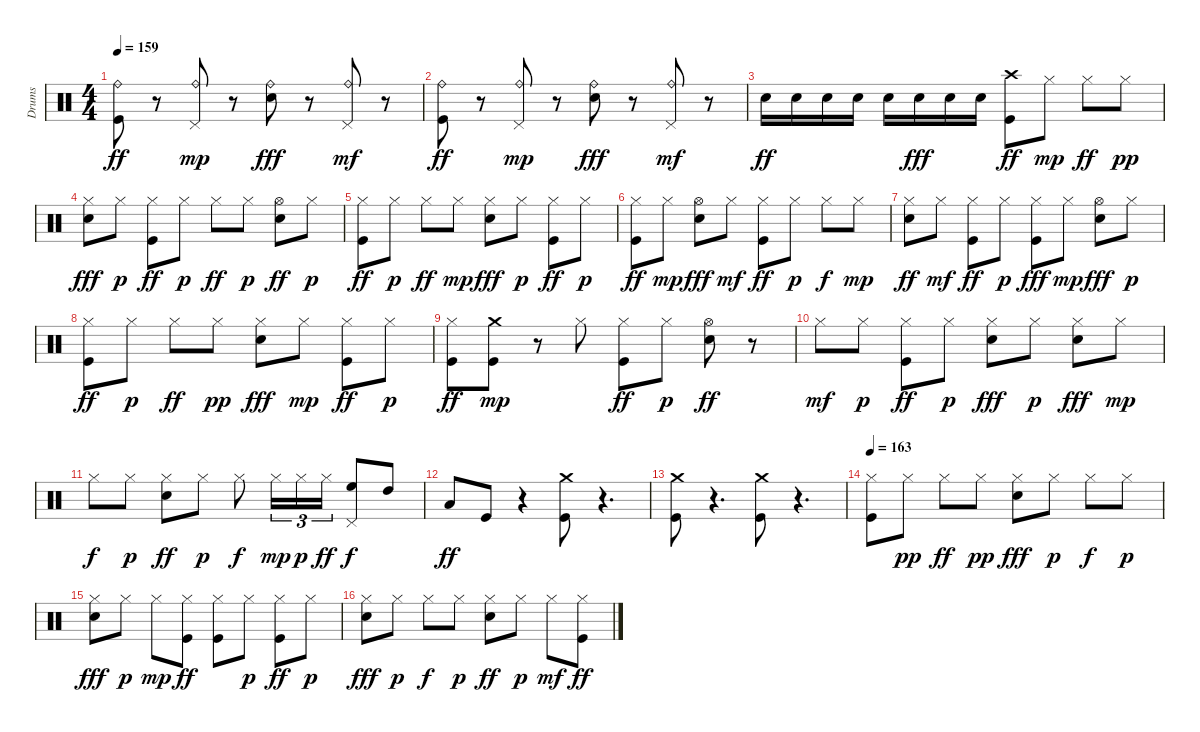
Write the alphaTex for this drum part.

\track ("Drums" "Drums") {instrument percussion}
\staff {score}
\articulation defaults
\ts (4 4)
\tempo 159
\clef neutral
\ks c
("Kick (hit)" "Ride (bell)").8{dy ff} r.8 ("Pedal Hi-Hat (hit)" "Ride (bell)").8{dy mp} r.8 ("Electric Snare (hit)" "Ride (bell)").8{dy fff} r.8 ("Pedal Hi-Hat (hit)" "Ride (bell)").8{dy mf} r.8 |
("Kick (hit)" "Ride (bell)").8{dy ff} r.8 ("Pedal Hi-Hat (hit)" "Ride (bell)").8{dy mp} r.8 ("Electric Snare (hit)" "Ride (bell)").8{dy fff} r.8 ("Pedal Hi-Hat (hit)" "Ride (bell)").8{dy mf} r.8 |
"Electric Snare (hit)".16{dy ff} "Electric Snare (hit)".16 "Electric Snare (hit)".16 "Electric Snare (hit)".16 "Electric Snare (hit)".16 "Electric Snare (hit)".16{dy fff} "Electric Snare (hit)".16 "Electric Snare (hit)".16 ("Kick (hit)" "Crash high (hit)").8{dy ff} "Hi-Hat (closed)".8{dy mp} "Hi-Hat (closed)".8{dy ff} "Hi-Hat (closed)".8{dy pp} |
("Electric Snare (hit)" "Hi-Hat (closed)").8{dy fff} "Hi-Hat (closed)".8{dy p} ("Kick (hit)" "Hi-Hat (closed)").8{dy ff} "Hi-Hat (closed)".8{dy p} "Hi-Hat (closed)".8{dy ff} "Hi-Hat (closed)".8{dy p} ("Electric Snare (hit)" "Hi-Hat (open)").8{dy ff} "Hi-Hat (closed)".8{dy p} |
("Kick (hit)" "Hi-Hat (closed)").8{dy ff} "Hi-Hat (closed)".8{dy p} "Hi-Hat (closed)".8{dy ff} "Hi-Hat (closed)".8{dy mp} ("Electric Snare (hit)" "Hi-Hat (closed)").8{dy fff} "Hi-Hat (closed)".8{dy p} ("Kick (hit)" "Hi-Hat (closed)").8{dy ff} "Hi-Hat (closed)".8{dy p} |
("Kick (hit)" "Hi-Hat (closed)").8{dy ff} "Hi-Hat (closed)".8{dy mp} ("Electric Snare (hit)" "Hi-Hat (open)").8{dy fff} "Hi-Hat (closed)".8{dy mf} ("Kick (hit)" "Hi-Hat (closed)").8{dy ff} "Hi-Hat (closed)".8{dy p} "Hi-Hat (closed)".8{dy f} "Hi-Hat (closed)".8{dy mp} |
("Electric Snare (hit)" "Hi-Hat (closed)").8{dy ff} "Hi-Hat (closed)".8{dy mf} ("Kick (hit)" "Hi-Hat (closed)").8{dy ff} "Hi-Hat (closed)".8{dy p} ("Kick (hit)" "Hi-Hat (closed)").8{dy fff} "Hi-Hat (closed)".8{dy mp} ("Electric Snare (hit)" "Hi-Hat (open)").8{dy fff} "Hi-Hat (closed)".8{dy p} |
("Kick (hit)" "Hi-Hat (closed)").8{dy ff} "Hi-Hat (closed)".8{dy p} "Hi-Hat (closed)".8{dy ff} "Hi-Hat (closed)".8{dy pp} ("Electric Snare (hit)" "Hi-Hat (closed)").8{dy fff} "Hi-Hat (closed)".8{dy mp} ("Kick (hit)" "Hi-Hat (closed)").8{dy ff} "Hi-Hat (closed)".8{dy p} |
("Kick (hit)" "Hi-Hat (closed)").8{dy ff} ("Kick (hit)" "Crash medium (hit)").8{dy mp} r.8 "Hi-Hat (closed)".8 ("Kick (hit)" "Hi-Hat (closed)").8{dy ff} "Hi-Hat (closed)".8{dy p} ("Electric Snare (hit)" "Hi-Hat (open)").8{dy ff} r.8 |
"Hi-Hat (closed)".8{dy mf} "Hi-Hat (closed)".8{dy p} ("Kick (hit)" "Hi-Hat (closed)").8{dy ff} "Hi-Hat (closed)".8{dy p} ("Electric Snare (hit)" "Hi-Hat (closed)").8{dy fff} "Hi-Hat (closed)".8{dy p} ("Electric Snare (hit)" "Hi-Hat (closed)").8{dy fff} "Hi-Hat (closed)".8{dy mp} |
"Hi-Hat (closed)".8{dy f} "Hi-Hat (closed)".8{dy p} ("Electric Snare (hit)" "Hi-Hat (closed)").8{dy ff} "Hi-Hat (closed)".8{dy p} "Hi-Hat (closed)".8{dy f} "Hi-Hat (closed)".16{tu (3 2) dy mp} "Hi-Hat (closed)".16{tu (3 2) dy p} "Hi-Hat (closed)".16{tu (3 2) dy ff} ("High Floor Tom (hit)" "Pedal Hi-Hat (hit)").8{dy f} "High Tom (hit)".8 |
"Low Tom (hit)".8{dy ff} "Kick (hit)".8 r.4 ("Kick (hit)" "Crash medium (hit)").8 r.4{d} |
("Kick (hit)" "Crash medium (hit)").8 r.4{d} ("Kick (hit)" "Crash medium (hit)").8 r.4{d} |
\tempo 163
("Kick (hit)" "Hi-Hat (closed)").8 "Hi-Hat (closed)".8{dy pp} "Hi-Hat (closed)".8{dy ff} "Hi-Hat (closed)".8{dy pp} ("Electric Snare (hit)" "Hi-Hat (closed)").8{dy fff} "Hi-Hat (closed)".8{dy p} "Hi-Hat (closed)".8{dy f} "Hi-Hat (closed)".8{dy p} |
("Electric Snare (hit)" "Hi-Hat (closed)").8{dy fff} "Hi-Hat (closed)".8{dy p} "Hi-Hat (closed)".8{dy mp} ("Kick (hit)" "Hi-Hat (closed)").8{dy ff} ("Kick (hit)" "Hi-Hat (closed)").8 "Hi-Hat (closed)".8{dy p} ("Kick (hit)" "Hi-Hat (closed)").8{dy ff} "Hi-Hat (closed)".8{dy p} |
("Electric Snare (hit)" "Hi-Hat (closed)").8{dy fff} "Hi-Hat (closed)".8{dy p} "Hi-Hat (closed)".8{dy f} "Hi-Hat (closed)".8{dy p} ("Electric Snare (hit)" "Hi-Hat (closed)").8{dy ff} "Hi-Hat (closed)".8{dy p} "Hi-Hat (closed)".8{dy mf} ("Kick (hit)" "Hi-Hat (closed)").8{dy ff}
